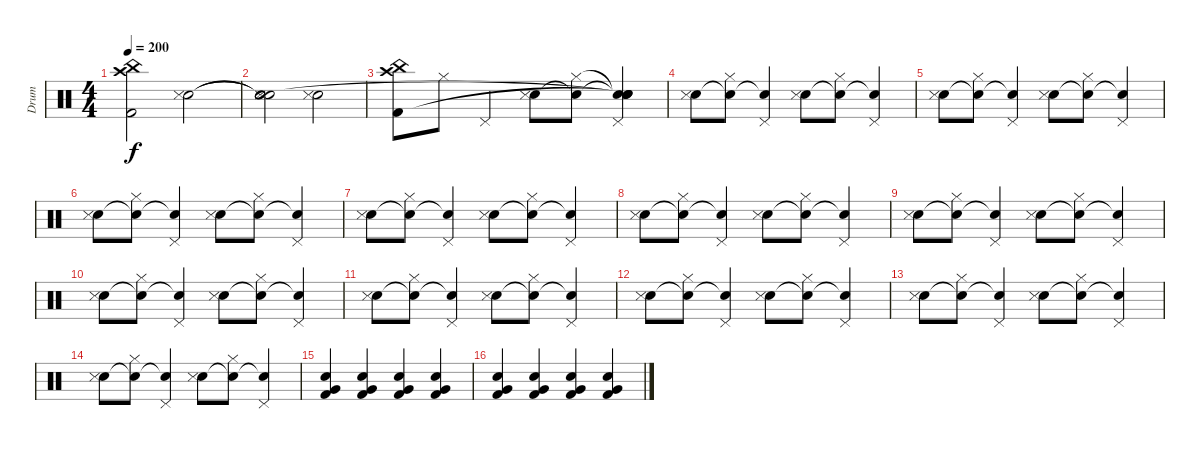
\track ("Drum" "Drum") {instrument percussion}
\staff {score}
\articulation defaults
\ts (4 4)
\tempo 200
\clef neutral
\ks c
("China (hit)" "Crash high (hit)" "Kick (hit) 2").2{dy f} ("Hand Clap (hit)" "Snare (side stick) 3").2 |
("Snare (hit)"{t} "Snare (hit)"{t} "Hand Clap (hit)" "Snare (side stick) 3" "Snare (hit)").2 ("Hand Clap (hit)" "Snare (side stick) 3").2 |
("China (hit)" "Crash high (hit)" "Kick (hit) 2").8 "Hi-Hat (closed)".8 "Pedal Hi-Hat (hit)".4 ("Hand Clap (hit)" "Snare (side stick) 3").8 ("Snare (hit)"{t} "Hi-Hat (closed)").8 ("Snare (hit)"{t} "Snare (hit)"{t} "Snare (hit)"{t} "Pedal Hi-Hat (hit)" "Snare (hit)"{t}).4 |
("Hand Clap (hit)" "Snare (side stick) 3").8 ("Snare (hit)"{t} "Hi-Hat (closed)").8 ("Snare (hit)"{t} "Pedal Hi-Hat (hit)").4 ("Hand Clap (hit)" "Snare (side stick) 3").8 ("Snare (hit)"{t} "Hi-Hat (closed)").8 ("Snare (hit)"{t} "Pedal Hi-Hat (hit)").4 |
("Hand Clap (hit)" "Snare (side stick) 3").8 ("Snare (hit)"{t} "Hi-Hat (closed)").8 ("Snare (hit)"{t} "Pedal Hi-Hat (hit)").4 ("Hand Clap (hit)" "Snare (side stick) 3").8 ("Snare (hit)"{t} "Hi-Hat (closed)").8 ("Snare (hit)"{t} "Pedal Hi-Hat (hit)").4 |
("Hand Clap (hit)" "Snare (side stick) 3").8 ("Snare (hit)"{t} "Hi-Hat (closed)").8 ("Snare (hit)"{t} "Pedal Hi-Hat (hit)").4 ("Hand Clap (hit)" "Snare (side stick) 3").8 ("Snare (hit)"{t} "Hi-Hat (closed)").8 ("Snare (hit)"{t} "Pedal Hi-Hat (hit)").4 |
("Hand Clap (hit)" "Snare (side stick) 3").8 ("Snare (hit)"{t} "Hi-Hat (closed)").8 ("Snare (hit)"{t} "Pedal Hi-Hat (hit)").4 ("Hand Clap (hit)" "Snare (side stick) 3").8 ("Snare (hit)"{t} "Hi-Hat (closed)").8 ("Snare (hit)"{t} "Pedal Hi-Hat (hit)").4 |
("Hand Clap (hit)" "Snare (side stick) 3").8 ("Snare (hit)"{t} "Hi-Hat (closed)").8 ("Snare (hit)"{t} "Pedal Hi-Hat (hit)").4 ("Hand Clap (hit)" "Snare (side stick) 3").8 ("Snare (hit)"{t} "Hi-Hat (closed)").8 ("Snare (hit)"{t} "Pedal Hi-Hat (hit)").4 |
("Hand Clap (hit)" "Snare (side stick) 3").8 ("Snare (hit)"{t} "Hi-Hat (closed)").8 ("Snare (hit)"{t} "Pedal Hi-Hat (hit)").4 ("Hand Clap (hit)" "Snare (side stick) 3").8 ("Snare (hit)"{t} "Hi-Hat (closed)").8 ("Snare (hit)"{t} "Pedal Hi-Hat (hit)").4 |
("Hand Clap (hit)" "Snare (side stick) 3").8 ("Snare (hit)"{t} "Hi-Hat (closed)").8 ("Snare (hit)"{t} "Pedal Hi-Hat (hit)").4 ("Hand Clap (hit)" "Snare (side stick) 3").8 ("Snare (hit)"{t} "Hi-Hat (closed)").8 ("Snare (hit)"{t} "Pedal Hi-Hat (hit)").4 |
("Hand Clap (hit)" "Snare (side stick) 3").8 ("Snare (hit)"{t} "Hi-Hat (closed)").8 ("Snare (hit)"{t} "Pedal Hi-Hat (hit)").4 ("Hand Clap (hit)" "Snare (side stick) 3").8 ("Snare (hit)"{t} "Hi-Hat (closed)").8 ("Snare (hit)"{t} "Pedal Hi-Hat (hit)").4 |
("Hand Clap (hit)" "Snare (side stick) 3").8 ("Snare (hit)"{t} "Hi-Hat (closed)").8 ("Snare (hit)"{t} "Pedal Hi-Hat (hit)").4 ("Hand Clap (hit)" "Snare (side stick) 3").8 ("Snare (hit)"{t} "Hi-Hat (closed)").8 ("Snare (hit)"{t} "Pedal Hi-Hat (hit)").4 |
("Hand Clap (hit)" "Snare (side stick) 3").8 ("Snare (hit)"{t} "Hi-Hat (closed)").8 ("Snare (hit)"{t} "Pedal Hi-Hat (hit)").4 ("Hand Clap (hit)" "Snare (side stick) 3").8 ("Snare (hit)"{t} "Hi-Hat (closed)").8 ("Snare (hit)"{t} "Pedal Hi-Hat (hit)").4 |
("Hand Clap (hit)" "Snare (side stick) 3").8 ("Snare (hit)"{t} "Hi-Hat (closed)").8 ("Snare (hit)"{t} "Pedal Hi-Hat (hit)").4 ("Hand Clap (hit)" "Snare (side stick) 3").8 ("Snare (hit)"{t} "Hi-Hat (closed)").8 ("Snare (hit)"{t} "Pedal Hi-Hat (hit)").4 |
("Electric Snare (hit)" "Very Low Tom (hit)" "Kick (hit) 2").4 ("Electric Snare (hit)" "Very Low Tom (hit)" "Kick (hit) 2").4 ("Electric Snare (hit)" "Very Low Tom (hit)" "Kick (hit) 2").4 ("Electric Snare (hit)" "Very Low Tom (hit)" "Kick (hit) 2").4 |
("Electric Snare (hit)" "Very Low Tom (hit)" "Kick (hit) 2").4 ("Electric Snare (hit)" "Very Low Tom (hit)" "Kick (hit) 2").4 ("Electric Snare (hit)" "Very Low Tom (hit)" "Kick (hit) 2").4 ("Electric Snare (hit)" "Very Low Tom (hit)" "Kick (hit) 2").4
